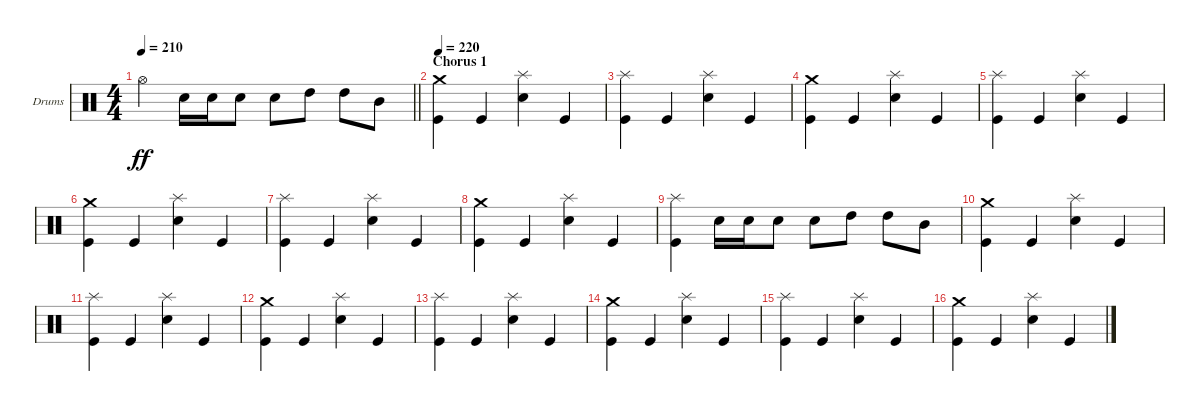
\bracketExtendMode groupsimilarinstruments
\firstSystemTrackNameOrientation horizontal
\otherSystemsTrackNameOrientation horizontal
\track ("Drumkit" "Drums") {instrument percussion}
\staff {score}
\articulation defaults
\ts (4 4)
\tempo 210
\clef neutral
\barLineRight lightlight
\ks c "Hi-Hat (open)".4{dy ff} "Snare (hit) 2".16 "Snare (hit) 2".16 "Snare (hit) 2".8 "Snare (hit) 2".8 "High Tom (hit)".8 "High Tom (hit)".8 "Mid Tom (hit)".8
|
\section ("" "Chorus 1")
\tempo 220
("Crash medium (hit)" "Kick (hit)").4 "Kick (hit)".4 ("Splash (hit)" "Snare (hit) 2").4 "Kick (hit)".4 |
("Splash (hit)" "Kick (hit)").4 "Kick (hit)".4 ("Splash (hit)" "Snare (hit) 2").4 "Kick (hit)".4 |
("Crash medium (hit)" "Kick (hit)").4 "Kick (hit)".4 ("Splash (hit)" "Snare (hit) 2").4 "Kick (hit)".4 |
("Splash (hit)" "Kick (hit)").4 "Kick (hit)".4 ("Splash (hit)" "Snare (hit) 2").4 "Kick (hit)".4 |
("Crash medium (hit)" "Kick (hit)").4 "Kick (hit)".4 ("Splash (hit)" "Snare (hit) 2").4 "Kick (hit)".4 |
("Splash (hit)" "Kick (hit)").4 "Kick (hit)".4 ("Splash (hit)" "Snare (hit) 2").4 "Kick (hit)".4 |
("Crash medium (hit)" "Kick (hit)").4 "Kick (hit)".4 ("Splash (hit)" "Snare (hit) 2").4 "Kick (hit)".4 |
("Splash (hit)" "Kick (hit)").4 "Snare (hit) 2".16 "Snare (hit) 2".16 "Snare (hit) 2".8 "Snare (hit) 2".8 "High Tom (hit)".8 "High Tom (hit)".8 "Mid Tom (hit)".8 |
("Crash medium (hit)" "Kick (hit)").4 "Kick (hit)".4 ("Splash (hit)" "Snare (hit) 2").4 "Kick (hit)".4 |
("Splash (hit)" "Kick (hit)").4 "Kick (hit)".4 ("Splash (hit)" "Snare (hit) 2").4 "Kick (hit)".4 |
("Crash medium (hit)" "Kick (hit)").4 "Kick (hit)".4 ("Splash (hit)" "Snare (hit) 2").4 "Kick (hit)".4 |
("Splash (hit)" "Kick (hit)").4 "Kick (hit)".4 ("Splash (hit)" "Snare (hit) 2").4 "Kick (hit)".4 |
("Crash medium (hit)" "Kick (hit)").4 "Kick (hit)".4 ("Splash (hit)" "Snare (hit) 2").4 "Kick (hit)".4 |
("Splash (hit)" "Kick (hit)").4 "Kick (hit)".4 ("Splash (hit)" "Snare (hit) 2").4 "Kick (hit)".4 |
("Crash medium (hit)" "Kick (hit)").4 "Kick (hit)".4 ("Splash (hit)" "Snare (hit) 2").4 "Kick (hit)".4
